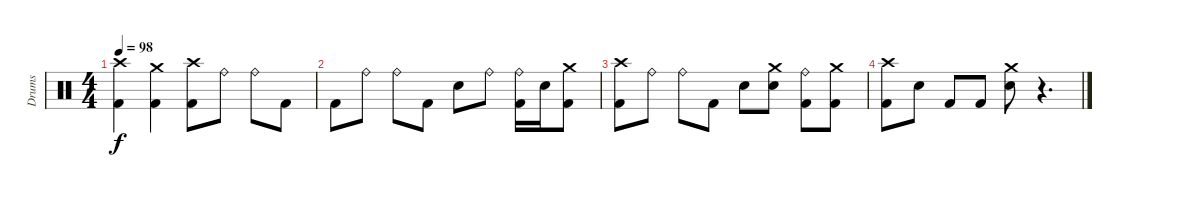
\track ("Drums" "Drums") {instrument percussion}
\staff {score}
\articulation defaults
\ts (4 4)
\tempo 98
\clef neutral
\ks c
("Kick (hit) 2" "Crash high (hit)").4{dy f} ("Kick (hit) 2" "Crash medium (hit)").4 ("Kick (hit) 2" "Crash high (hit)").8 "Ride (bell)".8 "Ride (bell)".8 "Kick (hit) 2".8 |
"Kick (hit) 2".8 "Ride (bell)".8 "Ride (bell)".8 "Kick (hit) 2".8 "Snare (hit) 2".8 "Ride (bell)".8 ("Kick (hit) 2" "Ride (bell)").16 "Snare (hit) 2".16 ("Kick (hit) 2" "Crash medium (hit)").8 |
("Kick (hit) 2" "Crash high (hit)").8 "Ride (bell)".8 "Ride (bell)".8 "Kick (hit) 2".8 "Snare (hit) 2".8 ("Snare (hit) 2" "Crash medium (hit)").8 ("Kick (hit) 2" "Ride (bell)").8 ("Kick (hit) 2" "Crash medium (hit)").8 |
("Kick (hit) 2" "Crash high (hit)").8 "Snare (hit) 2".8 "Kick (hit) 2".8 "Kick (hit) 2".8 ("Snare (hit) 2" "Crash medium (hit)").8 r.4{d}
